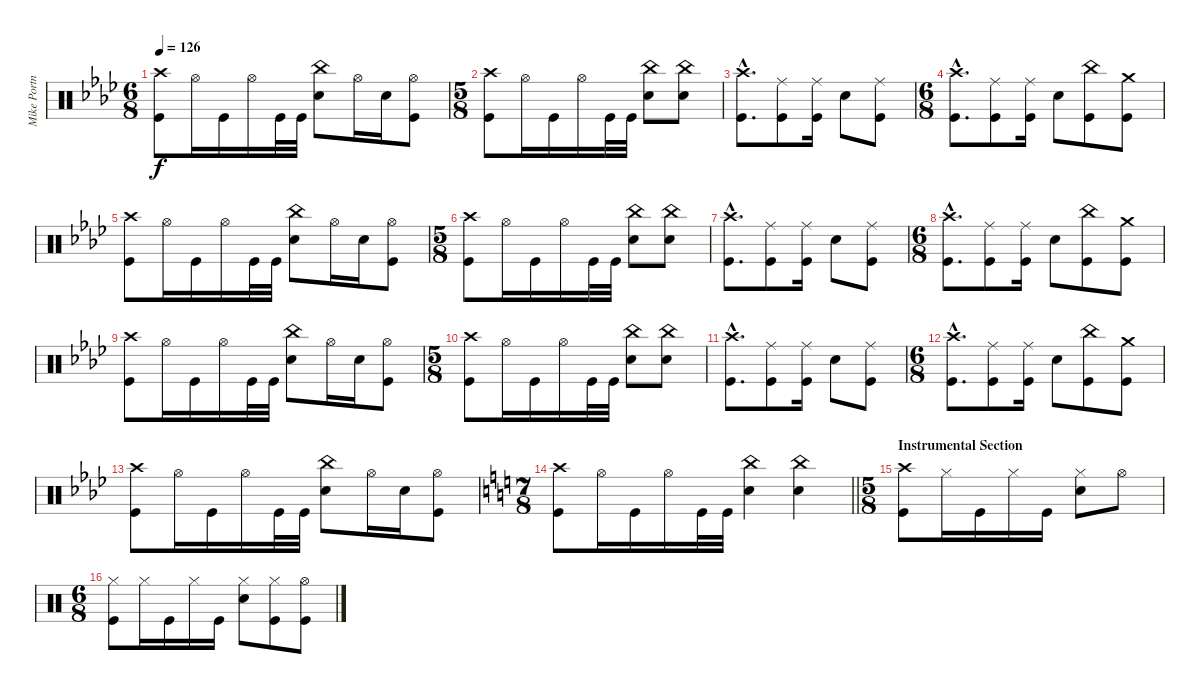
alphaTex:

\track ("Mike Portnoy" "Mike Portn") {instrument percussion}
\staff {score}
\articulation defaults
\ts (6 8)
\tempo 126
\clef neutral
\ks ab
("Crash high (hit)" "Kick (hit)").8{dy f} "Hi-Hat (open)".16 "Kick (hit)".16 "Hi-Hat (open)".16 "Kick (hit)".32 "Kick (hit)".32 ("China (hit)" "Electric Snare (hit)").8 "Hi-Hat (open)".16 "Electric Snare (hit)".16 ("Hi-Hat (open)" "Kick (hit)").8 |
\ts (5 8)
("Crash high (hit)" "Kick (hit)").8 "Hi-Hat (open)".16 "Kick (hit)".16 "Hi-Hat (open)".16 "Kick (hit)".32 "Kick (hit)".32 ("China (hit)" "Electric Snare (hit)").8 ("China (hit)" "Electric Snare (hit)").8 |
("Crash high (hit)"{hac} "Kick (hit)"{hac}).8{d} ("Ride (middle)" "Kick (hit)").8 ("Ride (middle)" "Kick (hit)").16 "Electric Snare (hit)".8 ("Ride (middle)" "Kick (hit)").8 |
\ts (6 8)
("Crash high (hit)"{hac} "Kick (hit)"{hac}).8{d} ("Ride (middle)" "Kick (hit)").8 ("Ride (middle)" "Kick (hit)").16 "Electric Snare (hit)".8 ("China (hit)" "Kick (hit)").8 ("Crash medium (hit)" "Kick (hit)").8 |
("Crash high (hit)" "Kick (hit)").8 "Hi-Hat (open)".16 "Kick (hit)".16 "Hi-Hat (open)".16 "Kick (hit)".32 "Kick (hit)".32 ("China (hit)" "Electric Snare (hit)").8 "Hi-Hat (open)".16 "Electric Snare (hit)".16 ("Hi-Hat (open)" "Kick (hit)").8 |
\ts (5 8)
("Crash high (hit)" "Kick (hit)").8 "Hi-Hat (open)".16 "Kick (hit)".16 "Hi-Hat (open)".16 "Kick (hit)".32 "Kick (hit)".32 ("China (hit)" "Electric Snare (hit)").8 ("China (hit)" "Electric Snare (hit)").8 |
("Crash high (hit)"{hac} "Kick (hit)"{hac}).8{d} ("Ride (middle)" "Kick (hit)").8 ("Ride (middle)" "Kick (hit)").16 "Electric Snare (hit)".8 ("Ride (middle)" "Kick (hit)").8 |
\ts (6 8)
("Crash high (hit)"{hac} "Kick (hit)"{hac}).8{d} ("Ride (middle)" "Kick (hit)").8 ("Ride (middle)" "Kick (hit)").16 "Electric Snare (hit)".8 ("China (hit)" "Kick (hit)").8 ("Crash medium (hit)" "Kick (hit)").8 |
("Crash high (hit)" "Kick (hit)").8 "Hi-Hat (open)".16 "Kick (hit)".16 "Hi-Hat (open)".16 "Kick (hit)".32 "Kick (hit)".32 ("China (hit)" "Electric Snare (hit)").8 "Hi-Hat (open)".16 "Electric Snare (hit)".16 ("Hi-Hat (open)" "Kick (hit)").8 |
\ts (5 8)
("Crash high (hit)" "Kick (hit)").8 "Hi-Hat (open)".16 "Kick (hit)".16 "Hi-Hat (open)".16 "Kick (hit)".32 "Kick (hit)".32 ("China (hit)" "Electric Snare (hit)").8 ("China (hit)" "Electric Snare (hit)").8 |
("Crash high (hit)"{hac} "Kick (hit)"{hac}).8{d} ("Ride (middle)" "Kick (hit)").8 ("Ride (middle)" "Kick (hit)").16 "Electric Snare (hit)".8 ("Ride (middle)" "Kick (hit)").8 |
\ts (6 8)
("Crash high (hit)"{hac} "Kick (hit)"{hac}).8{d} ("Ride (middle)" "Kick (hit)").8 ("Ride (middle)" "Kick (hit)").16 "Electric Snare (hit)".8 ("China (hit)" "Kick (hit)").8 ("Crash medium (hit)" "Kick (hit)").8 |
("Crash high (hit)" "Kick (hit)").8 "Hi-Hat (open)".16 "Kick (hit)".16 "Hi-Hat (open)".16 "Kick (hit)".32 "Kick (hit)".32 ("China (hit)" "Electric Snare (hit)").8 "Hi-Hat (open)".16 "Electric Snare (hit)".16 ("Hi-Hat (open)" "Kick (hit)").8 |
\ts (7 8)
\barLineRight lightlight
\ks c
("Crash high (hit)" "Kick (hit)").8 "Hi-Hat (open)".16 "Kick (hit)".16 "Hi-Hat (open)".16 "Kick (hit)".32 "Kick (hit)".32 ("China (hit)" "Electric Snare (hit)").4 ("China (hit)" "Electric Snare (hit)").4 |
\ts (5 8)
\section ("" "Instrumental Section")
("Crash high (hit)" "Kick (hit)").8 "Hi-Hat (closed)".16 "Kick (hit)".16 "Hi-Hat (closed)".16 "Kick (hit)".16 ("Hi-Hat (closed)" "Electric Snare (hit)").8 "Hi-Hat (open)".8 |
\ts (6 8)
("Hi-Hat (closed)" "Kick (hit)").8 "Hi-Hat (closed)".16 "Kick (hit)".16 "Hi-Hat (closed)".16 "Kick (hit)".16 ("Hi-Hat (closed)" "Electric Snare (hit)").8 ("Hi-Hat (closed)" "Kick (hit)").8 ("Hi-Hat (open)" "Kick (hit)").8
